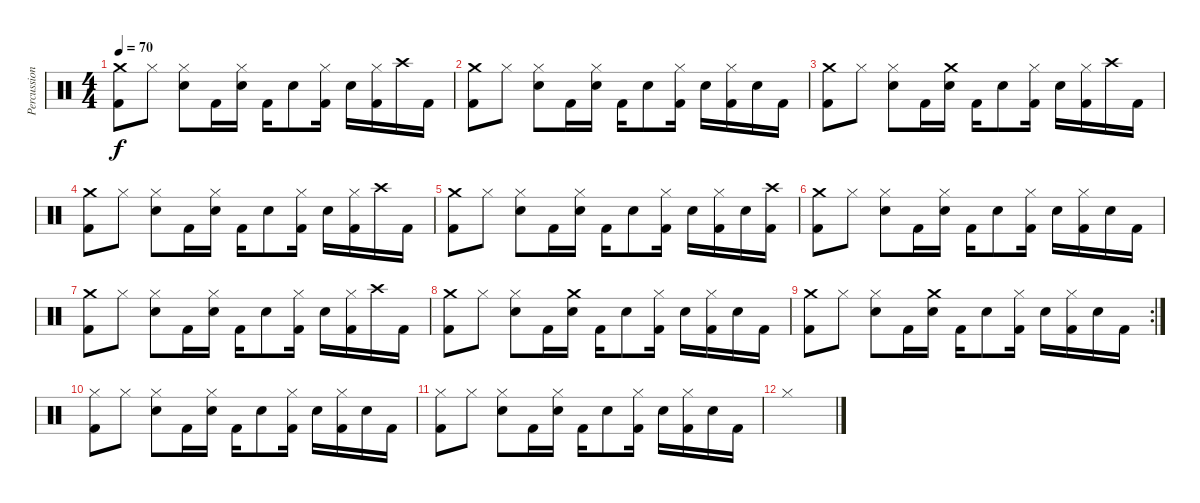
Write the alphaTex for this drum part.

\track ("Percussion" "Percussion") {instrument percussion}
\staff {score}
\articulation defaults
\ts (4 4)
\tempo 70
\clef neutral
\ks c
("Crash medium (hit)" "Kick (hit) 2").8{dy f} "Hi-Hat (closed)".8 ("Hi-Hat (closed)" "Snare (hit) 2").8 "Kick (hit) 2".16 ("Hi-Hat (closed)" "Snare (hit) 2").16 "Kick (hit) 2".16 "Snare (hit) 2".8 ("Hi-Hat (closed)" "Kick (hit) 2").16 "Snare (hit) 2".16 ("Hi-Hat (closed)" "Kick (hit) 2").16 "Crash high (hit)".16 "Kick (hit) 2".16 |
("Crash medium (hit)" "Kick (hit) 2").8 "Hi-Hat (closed)".8 ("Hi-Hat (closed)" "Snare (hit) 2").8 "Kick (hit) 2".16 ("Hi-Hat (closed)" "Snare (hit) 2").16 "Kick (hit) 2".16 "Snare (hit) 2".8 ("Hi-Hat (closed)" "Kick (hit) 2").16 "Snare (hit) 2".16 ("Hi-Hat (closed)" "Kick (hit) 2").16 "Snare (hit) 2".16 "Kick (hit) 2".16 |
("Crash medium (hit)" "Kick (hit) 2").8 "Hi-Hat (closed)".8 ("Hi-Hat (closed)" "Snare (hit) 2").8 "Kick (hit) 2".16 ("Crash medium (hit)" "Snare (hit) 2").16 "Kick (hit) 2".16 "Snare (hit) 2".8 ("Hi-Hat (closed)" "Kick (hit) 2").16 "Snare (hit) 2".16 ("Hi-Hat (closed)" "Kick (hit) 2").16 "Crash high (hit)".16 "Kick (hit) 2".16 |
("Crash medium (hit)" "Kick (hit) 2").8 "Hi-Hat (closed)".8 ("Hi-Hat (closed)" "Snare (hit) 2").8 "Kick (hit) 2".16 ("Hi-Hat (closed)" "Snare (hit) 2").16 "Kick (hit) 2".16 "Snare (hit) 2".8 ("Hi-Hat (closed)" "Kick (hit) 2").16 "Snare (hit) 2".16 ("Hi-Hat (closed)" "Kick (hit) 2").16 "Crash high (hit)".16 "Kick (hit) 2".16 |
("Crash medium (hit)" "Kick (hit) 2").8 "Hi-Hat (closed)".8 ("Hi-Hat (closed)" "Snare (hit) 2").8 "Kick (hit) 2".16 ("Hi-Hat (closed)" "Snare (hit) 2").16 "Kick (hit) 2".16 "Snare (hit) 2".8 ("Hi-Hat (closed)" "Kick (hit) 2").16 "Snare (hit) 2".16 ("Hi-Hat (closed)" "Kick (hit) 2").16 "Snare (hit) 2".16 ("Crash high (hit)" "Kick (hit) 2").16 |
("Crash medium (hit)" "Kick (hit) 2").8 "Hi-Hat (closed)".8 ("Hi-Hat (closed)" "Snare (hit) 2").8 "Kick (hit) 2".16 ("Hi-Hat (closed)" "Snare (hit) 2").16 "Kick (hit) 2".16 "Snare (hit) 2".8 ("Hi-Hat (closed)" "Kick (hit) 2").16 "Snare (hit) 2".16 ("Hi-Hat (closed)" "Kick (hit) 2").16 "Snare (hit) 2".16 "Kick (hit) 2".16 |
("Crash medium (hit)" "Kick (hit) 2").8 "Hi-Hat (closed)".8 ("Hi-Hat (closed)" "Snare (hit) 2").8 "Kick (hit) 2".16 ("Hi-Hat (closed)" "Snare (hit) 2").16 "Kick (hit) 2".16 "Snare (hit) 2".8 ("Hi-Hat (closed)" "Kick (hit) 2").16 "Snare (hit) 2".16 ("Hi-Hat (closed)" "Kick (hit) 2").16 "Crash high (hit)".16 "Kick (hit) 2".16 |
("Crash medium (hit)" "Kick (hit) 2").8 "Hi-Hat (closed)".8 ("Hi-Hat (closed)" "Snare (hit) 2").8 "Kick (hit) 2".16 ("Crash medium (hit)" "Snare (hit) 2").16 "Kick (hit) 2".16 "Snare (hit) 2".8 ("Hi-Hat (closed)" "Kick (hit) 2").16 "Snare (hit) 2".16 ("Hi-Hat (closed)" "Kick (hit) 2").16 "Snare (hit) 2".16 "Kick (hit) 2".16 |
\rc 2
("Crash medium (hit)" "Kick (hit) 2").8 "Hi-Hat (closed)".8 ("Hi-Hat (closed)" "Snare (hit) 2").8 "Kick (hit) 2".16 ("Crash medium (hit)" "Snare (hit) 2").16 "Kick (hit) 2".16 "Snare (hit) 2".8 ("Hi-Hat (closed)" "Kick (hit) 2").16 "Snare (hit) 2".16 ("Hi-Hat (closed)" "Kick (hit) 2").16 "Snare (hit) 2".16 "Kick (hit) 2".16 |
("Hi-Hat (closed)" "Kick (hit) 2").8 "Hi-Hat (closed)".8 ("Hi-Hat (closed)" "Snare (hit) 2").8 "Kick (hit) 2".16 ("Hi-Hat (closed)" "Snare (hit) 2").16 "Kick (hit) 2".16 "Snare (hit) 2".8 ("Hi-Hat (closed)" "Kick (hit) 2").16 "Snare (hit) 2".16 ("Hi-Hat (closed)" "Kick (hit) 2").16 "Snare (hit) 2".16 "Kick (hit) 2".16 |
("Hi-Hat (closed)" "Kick (hit) 2").8 "Hi-Hat (closed)".8 ("Hi-Hat (closed)" "Snare (hit) 2").8 "Kick (hit) 2".16 ("Hi-Hat (closed)" "Snare (hit) 2").16 "Kick (hit) 2".16 "Snare (hit) 2".8 ("Hi-Hat (closed)" "Kick (hit) 2").16 "Snare (hit) 2".16 ("Hi-Hat (closed)" "Kick (hit) 2").16 "Snare (hit) 2".16 "Kick (hit) 2".16 |
"Hi-Hat (closed)".1
